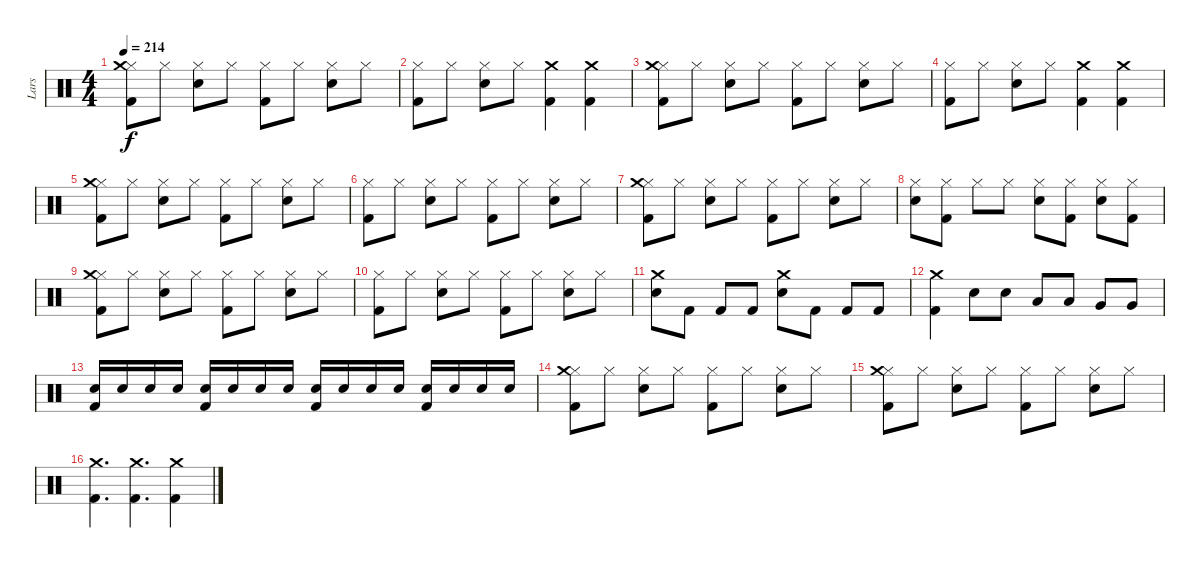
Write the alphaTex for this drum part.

\track ("Lars" "Lars") {instrument percussion}
\staff {score}
\articulation defaults
\ts (4 4)
\tempo 214
\clef neutral
\ks c
("Hi-Hat (closed)" "Kick (hit) 2" "Crash medium (hit)").8{dy f} "Hi-Hat (closed)".8 ("Hi-Hat (closed)" "Snare (hit) 2").8 "Hi-Hat (closed)".8 ("Hi-Hat (closed)" "Kick (hit) 2").8 "Hi-Hat (closed)".8 ("Hi-Hat (closed)" "Snare (hit) 2").8 "Hi-Hat (closed)".8 |
("Hi-Hat (closed)" "Kick (hit) 2").8 "Hi-Hat (closed)".8 ("Hi-Hat (closed)" "Snare (hit) 2").8 "Hi-Hat (closed)".8 ("Kick (hit) 2" "Crash medium (hit)").4 ("Kick (hit) 2" "Crash medium (hit)").4 |
("Hi-Hat (closed)" "Kick (hit) 2" "Crash medium (hit)").8 "Hi-Hat (closed)".8 ("Hi-Hat (closed)" "Snare (hit) 2").8 "Hi-Hat (closed)".8 ("Hi-Hat (closed)" "Kick (hit) 2").8 "Hi-Hat (closed)".8 ("Hi-Hat (closed)" "Snare (hit) 2").8 "Hi-Hat (closed)".8 |
("Hi-Hat (closed)" "Kick (hit) 2").8 "Hi-Hat (closed)".8 ("Hi-Hat (closed)" "Snare (hit) 2").8 "Hi-Hat (closed)".8 ("Kick (hit) 2" "Crash medium (hit)").4 ("Kick (hit) 2" "Crash medium (hit)").4 |
("Hi-Hat (closed)" "Kick (hit) 2" "Crash medium (hit)").8 "Hi-Hat (closed)".8 ("Hi-Hat (closed)" "Snare (hit) 2").8 "Hi-Hat (closed)".8 ("Hi-Hat (closed)" "Kick (hit) 2").8 "Hi-Hat (closed)".8 ("Hi-Hat (closed)" "Snare (hit) 2").8 "Hi-Hat (closed)".8 |
("Hi-Hat (closed)" "Kick (hit) 2").8 "Hi-Hat (closed)".8 ("Hi-Hat (closed)" "Snare (hit) 2").8 "Hi-Hat (closed)".8 ("Hi-Hat (closed)" "Kick (hit) 2").8 "Hi-Hat (closed)".8 ("Hi-Hat (closed)" "Snare (hit) 2").8 "Hi-Hat (closed)".8 |
("Hi-Hat (closed)" "Kick (hit) 2" "Crash medium (hit)").8 "Hi-Hat (closed)".8 ("Hi-Hat (closed)" "Snare (hit) 2").8 "Hi-Hat (closed)".8 ("Hi-Hat (closed)" "Kick (hit) 2").8 "Hi-Hat (closed)".8 ("Hi-Hat (closed)" "Snare (hit) 2").8 "Hi-Hat (closed)".8 |
("Hi-Hat (closed)" "Snare (hit) 2").8 ("Hi-Hat (closed)" "Kick (hit) 2").8 "Hi-Hat (closed)".8 "Hi-Hat (closed)".8 ("Hi-Hat (closed)" "Snare (hit) 2").8 ("Hi-Hat (closed)" "Kick (hit) 2").8 ("Hi-Hat (closed)" "Snare (hit) 2").8 ("Hi-Hat (closed)" "Kick (hit) 2").8 |
("Hi-Hat (closed)" "Kick (hit) 2" "Crash medium (hit)").8 "Hi-Hat (closed)".8 ("Hi-Hat (closed)" "Snare (hit) 2").8 "Hi-Hat (closed)".8 ("Hi-Hat (closed)" "Kick (hit) 2").8 "Hi-Hat (closed)".8 ("Hi-Hat (closed)" "Snare (hit) 2").8 "Hi-Hat (closed)".8 |
("Hi-Hat (closed)" "Kick (hit) 2").8 "Hi-Hat (closed)".8 ("Hi-Hat (closed)" "Snare (hit) 2").8 "Hi-Hat (closed)".8 ("Hi-Hat (closed)" "Kick (hit) 2").8 "Hi-Hat (closed)".8 ("Hi-Hat (closed)" "Snare (hit) 2").8 "Hi-Hat (closed)".8 |
("Snare (hit) 2" "Crash medium (hit)").8 "Kick (hit) 2".8 "Kick (hit) 2".8 "Kick (hit) 2".8 ("Snare (hit) 2" "Crash medium (hit)").8 "Kick (hit) 2".8 "Kick (hit) 2".8 "Kick (hit) 2".8 |
("Kick (hit) 2" "Crash medium (hit)").4 "Snare (hit) 2".8 "Snare (hit) 2".8 "Low Tom (hit)".8 "Low Tom (hit)".8 "Very Low Tom (hit)".8 "Very Low Tom (hit)".8 |
("Snare (hit) 2" "Kick (hit) 2").16{volume 7} "Snare (hit) 2".16 "Snare (hit) 2".16 "Snare (hit) 2".16 ("Snare (hit) 2" "Kick (hit) 2").16{volume 9} "Snare (hit) 2".16 "Snare (hit) 2".16 "Snare (hit) 2".16 ("Snare (hit) 2" "Kick (hit) 2").16{volume 11} "Snare (hit) 2".16 "Snare (hit) 2".16 "Snare (hit) 2".16 ("Snare (hit) 2" "Kick (hit) 2").16{volume 13} "Snare (hit) 2".16 "Snare (hit) 2".16 "Snare (hit) 2".16 |
("Hi-Hat (closed)" "Kick (hit) 2" "Crash medium (hit)").8 "Hi-Hat (closed)".8 ("Hi-Hat (closed)" "Snare (hit) 2").8 "Hi-Hat (closed)".8 ("Hi-Hat (closed)" "Kick (hit) 2").8 "Hi-Hat (closed)".8 ("Hi-Hat (closed)" "Snare (hit) 2").8 "Hi-Hat (closed)".8 |
("Hi-Hat (closed)" "Kick (hit) 2" "Crash medium (hit)").8 "Hi-Hat (closed)".8 ("Hi-Hat (closed)" "Snare (hit) 2").8 "Hi-Hat (closed)".8 ("Hi-Hat (closed)" "Kick (hit) 2").8 "Hi-Hat (closed)".8 ("Hi-Hat (closed)" "Snare (hit) 2").8 "Hi-Hat (closed)".8 |
("Kick (hit) 2" "Crash medium (hit)").4{d} ("Crash medium (hit)" "Kick (hit) 2").4{d} ("Kick (hit) 2" "Crash medium (hit)").4
